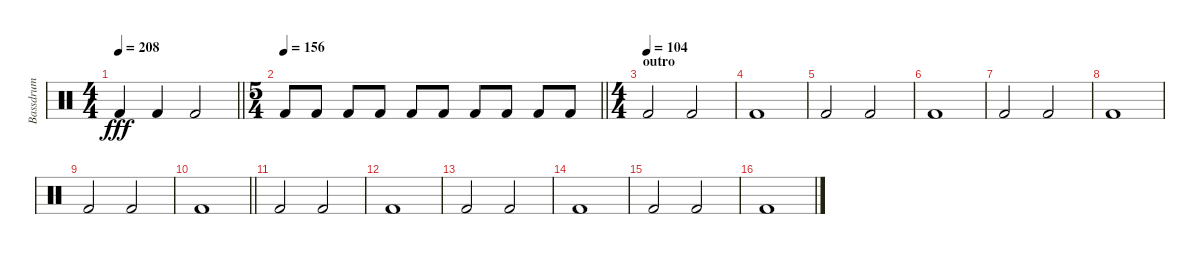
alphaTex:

\track ("Bassdrum" "Bassdrum") {instrument percussion}
\staff {score}
\articulation defaults
\ts (4 4)
\tempo 208
\clef neutral
\barLineRight lightlight
\ks c "Kick (hit) 2".4{dy fff} "Kick (hit) 2".4 "Kick (hit) 2".2
|
\ts (5 4)
\section ("" "")
\tempo 156
\barLineRight lightlight "Kick (hit) 2".8 "Kick (hit) 2".8 "Kick (hit) 2".8 "Kick (hit) 2".8 "Kick (hit) 2".8 "Kick (hit) 2".8 "Kick (hit) 2".8 "Kick (hit) 2".8 "Kick (hit) 2".8 "Kick (hit) 2".8
|
\ts (4 4)
\section ("" "outro")
\tempo (104)
"Kick (hit) 2".2 "Kick (hit) 2".2 |
"Kick (hit) 2".1 |
"Kick (hit) 2".2 "Kick (hit) 2".2 |
"Kick (hit) 2".1 |
"Kick (hit) 2".2 "Kick (hit) 2".2 |
"Kick (hit) 2".1 |
"Kick (hit) 2".2 "Kick (hit) 2".2 |
\barLineRight lightlight "Kick (hit) 2".1
|
\section ("" "")
"Kick (hit) 2".2 "Kick (hit) 2".2 |
"Kick (hit) 2".1 |
"Kick (hit) 2".2 "Kick (hit) 2".2 |
"Kick (hit) 2".1 |
"Kick (hit) 2".2 "Kick (hit) 2".2 |
"Kick (hit) 2".1
